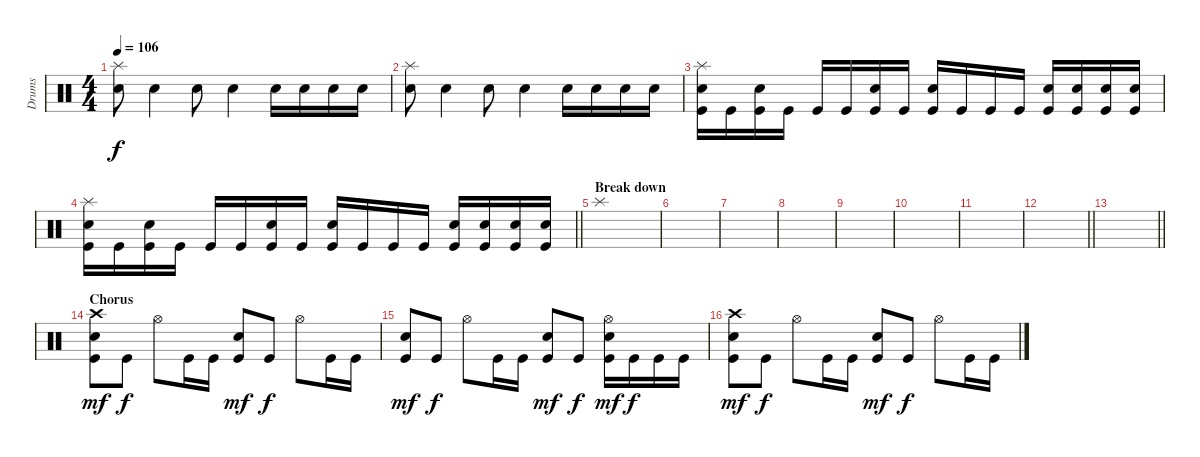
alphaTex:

\track ("Drums" "Drums") {instrument percussion}
\staff {score}
\articulation defaults
\ts (4 4)
\section ("" "")
\tempo 106
\clef neutral
\ks c
("Splash (hit)" "Electric Snare (hit)").8{dy f} "Electric Snare (hit)".4 "Electric Snare (hit)".8 "Electric Snare (hit)".4 "Electric Snare (hit)".16 "Electric Snare (hit)".16 "Electric Snare (hit)".16 "Electric Snare (hit)".16 |
("Splash (hit)" "Electric Snare (hit)").8 "Electric Snare (hit)".4 "Electric Snare (hit)".8 "Electric Snare (hit)".4 "Electric Snare (hit)".16 "Electric Snare (hit)".16 "Electric Snare (hit)".16 "Electric Snare (hit)".16 |
("Splash (hit)" "Electric Snare (hit)" "Kick (hit)").16 "Kick (hit)".16 ("Electric Snare (hit)" "Kick (hit)").16 "Kick (hit)".16 "Kick (hit)".16 "Kick (hit)".16 ("Electric Snare (hit)" "Kick (hit)").16 "Kick (hit)".16 ("Electric Snare (hit)" "Kick (hit)").16 "Kick (hit)".16 "Kick (hit)".16 "Kick (hit)".16 ("Electric Snare (hit)" "Kick (hit)").16 ("Electric Snare (hit)" "Kick (hit)").16 ("Electric Snare (hit)" "Kick (hit)").16 ("Electric Snare (hit)" "Kick (hit)").16 |
\barLineRight lightlight
("Splash (hit)" "Electric Snare (hit)" "Kick (hit)").16 "Kick (hit)".16 ("Electric Snare (hit)" "Kick (hit)").16 "Kick (hit)".16 "Kick (hit)".16 "Kick (hit)".16 ("Electric Snare (hit)" "Kick (hit)").16 "Kick (hit)".16 ("Electric Snare (hit)" "Kick (hit)").16 "Kick (hit)".16 "Kick (hit)".16 "Kick (hit)".16 ("Electric Snare (hit)" "Kick (hit)").16 ("Electric Snare (hit)" "Kick (hit)").16 ("Electric Snare (hit)" "Kick (hit)").16 ("Electric Snare (hit)" "Kick (hit)").16 |
\section ("" "Break down")
"Splash (hit)".1 |
|
|
|
|
|
|
\barLineRight lightlight
|
\section ("" "")
\barLineRight lightlight
|
\section ("" "Chorus")
("Crash high (hit)" "Electric Snare (hit)" "Kick (hit)").8{dy mf} "Kick (hit)".8{dy f} "Hi-Hat (open)".8 "Kick (hit)".16 "Kick (hit)".16 ("Electric Snare (hit)" "Kick (hit)").8{dy mf} "Kick (hit)".8{dy f} "Hi-Hat (open)".8 "Kick (hit)".16 "Kick (hit)".16 |
("Electric Snare (hit)" "Kick (hit)").8{dy mf} "Kick (hit)".8{dy f} "Hi-Hat (open)".8 "Kick (hit)".16 "Kick (hit)".16 ("Electric Snare (hit)" "Kick (hit)").8{dy mf} "Kick (hit)".8{dy f} ("Hi-Hat (open)" "Electric Snare (hit)" "Kick (hit)").16{dy mf} "Kick (hit)".16{dy f} "Kick (hit)".16 "Kick (hit)".16 |
("Crash high (hit)" "Electric Snare (hit)" "Kick (hit)").8{dy mf} "Kick (hit)".8{dy f} "Hi-Hat (open)".8 "Kick (hit)".16 "Kick (hit)".16 ("Electric Snare (hit)" "Kick (hit)").8{dy mf} "Kick (hit)".8{dy f} "Hi-Hat (open)".8 "Kick (hit)".16 "Kick (hit)".16
